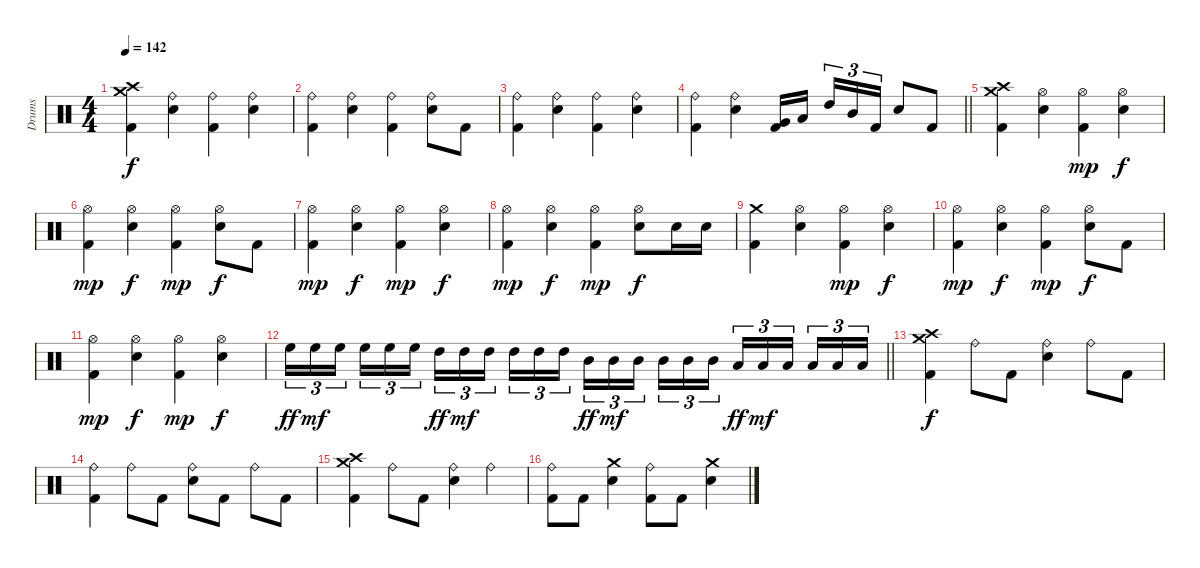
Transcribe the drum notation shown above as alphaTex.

\track ("Drums" "Drums") {instrument percussion}
\staff {score}
\articulation defaults
\ts (4 4)
\tempo 142
\clef neutral
\ks c
("Crash high (hit)" "Crash medium (hit)" "Kick (hit) 2").4{dy f} ("Ride (bell)" "Electric Snare (hit)").4 ("Ride (bell)" "Kick (hit) 2").4 ("Ride (bell)" "Electric Snare (hit)").4 |
("Ride (bell)" "Kick (hit) 2").4 ("Ride (bell)" "Electric Snare (hit)").4 ("Ride (bell)" "Kick (hit) 2").4 ("Ride (bell)" "Electric Snare (hit)").8 "Kick (hit) 2".8 |
("Ride (bell)" "Kick (hit) 2").4 ("Ride (bell)" "Electric Snare (hit)").4 ("Ride (bell)" "Kick (hit) 2").4 ("Ride (bell)" "Electric Snare (hit)").4 |
\barLineRight lightlight
("Ride (bell)" "Kick (hit) 2").4 ("Ride (bell)" "Electric Snare (hit)").4 ("Very Low Tom (hit)" "Kick (hit) 2").16 "Low Tom (hit)".16 "High Tom (hit)".16{tu (3 2)} "Mid Tom (hit)".16{tu (3 2)} "Kick (hit) 2".16{tu (3 2)} "Electric Snare (hit)".8 "Kick (hit) 2".8 |
("Crash high (hit)" "Crash medium (hit)" "Kick (hit) 2").4 ("Hi-Hat (open)" "Electric Snare (hit)").4 ("Hi-Hat (open)" "Kick (hit) 2").4{dy mp} ("Hi-Hat (open)" "Electric Snare (hit)").4{dy f} |
("Hi-Hat (open)" "Kick (hit) 2").4{dy mp} ("Hi-Hat (open)" "Electric Snare (hit)").4{dy f} ("Hi-Hat (open)" "Kick (hit) 2").4{dy mp} ("Hi-Hat (open)" "Electric Snare (hit)").8{dy f} "Kick (hit) 2".8 |
("Hi-Hat (open)" "Kick (hit) 2").4{dy mp} ("Hi-Hat (open)" "Electric Snare (hit)").4{dy f} ("Hi-Hat (open)" "Kick (hit) 2").4{dy mp} ("Hi-Hat (open)" "Electric Snare (hit)").4{dy f} |
("Hi-Hat (open)" "Kick (hit) 2").4{dy mp} ("Hi-Hat (open)" "Electric Snare (hit)").4{dy f} ("Hi-Hat (open)" "Kick (hit) 2").4{dy mp} ("Hi-Hat (open)" "Electric Snare (hit)").8{dy f} "Electric Snare (hit)".16 "Electric Snare (hit)".16 |
("Crash medium (hit)" "Kick (hit) 2").4 ("Hi-Hat (open)" "Electric Snare (hit)").4 ("Hi-Hat (open)" "Kick (hit) 2").4{dy mp} ("Hi-Hat (open)" "Electric Snare (hit)").4{dy f} |
("Hi-Hat (open)" "Kick (hit) 2").4{dy mp} ("Hi-Hat (open)" "Electric Snare (hit)").4{dy f} ("Hi-Hat (open)" "Kick (hit) 2").4{dy mp} ("Hi-Hat (open)" "Electric Snare (hit)").8{dy f} "Kick (hit) 2".8 |
("Hi-Hat (open)" "Kick (hit) 2").4{dy mp} ("Hi-Hat (open)" "Electric Snare (hit)").4{dy f} ("Hi-Hat (open)" "Kick (hit) 2").4{dy mp} ("Hi-Hat (open)" "Electric Snare (hit)").4{dy f} |
\barLineRight lightlight "High Floor Tom (hit)".16{tu (3 2) dy ff} "High Floor Tom (hit)".16{tu (3 2) dy mf} "High Floor Tom (hit)".16{tu (3 2)} "High Floor Tom (hit)".16{tu (3 2)} "High Floor Tom (hit)".16{tu (3 2)} "High Floor Tom (hit)".16{tu (3 2)} "High Tom (hit)".16{tu (3 2) dy ff} "High Tom (hit)".16{tu (3 2) dy mf} "High Tom (hit)".16{tu (3 2)} "High Tom (hit)".16{tu (3 2)} "High Tom (hit)".16{tu (3 2)} "High Tom (hit)".16{tu (3 2)} "Mid Tom (hit)".16{tu (3 2) dy ff} "Mid Tom (hit)".16{tu (3 2) dy mf} "Mid Tom (hit)".16{tu (3 2)} "Mid Tom (hit)".16{tu (3 2)} "Mid Tom (hit)".16{tu (3 2)} "Mid Tom (hit)".16{tu (3 2)} "Low Tom (hit)".16{tu (3 2) dy ff} "Low Tom (hit)".16{tu (3 2) dy mf} "Low Tom (hit)".16{tu (3 2)} "Low Tom (hit)".16{tu (3 2)} "Low Tom (hit)".16{tu (3 2)} "Low Tom (hit)".16{tu (3 2)}
|
("Crash high (hit)" "Crash medium (hit)" "Kick (hit) 2").4{dy f} "Ride (bell)".8 "Kick (hit) 2".8 ("Ride (bell)" "Electric Snare (hit)").4 "Ride (bell)".8 "Kick (hit) 2".8 |
("Ride (bell)" "Kick (hit) 2").4 "Ride (bell)".8 "Kick (hit) 2".8 ("Ride (bell)" "Electric Snare (hit)").8 "Kick (hit) 2".8 "Ride (bell)".8 "Kick (hit) 2".8 |
("Crash high (hit)" "Crash medium (hit)" "Kick (hit) 2").4 "Ride (bell)".8 "Kick (hit) 2".8 ("Ride (bell)" "Electric Snare (hit)").4 "Ride (bell)".4 |
("Ride (bell)" "Kick (hit) 2").8 "Kick (hit) 2".8 ("Crash medium (hit)" "Electric Snare (hit)").4 ("Ride (bell)" "Kick (hit) 2").8 "Kick (hit) 2".8 ("Crash medium (hit)" "Electric Snare (hit)").4
